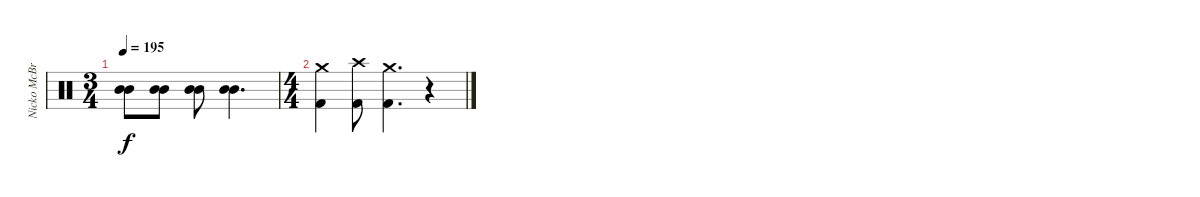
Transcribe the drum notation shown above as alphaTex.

\track ("Nicko McBrain" "Nicko McBr") {instrument percussion}
\staff {score}
\articulation defaults
\ts (3 4)
\tempo 195
\clef neutral
\ks c
("Mid Tom (hit)" "Mid Tom (hit)").8{dy f} ("Mid Tom (hit)" "Mid Tom (hit)").8 ("Mid Tom (hit)" "Mid Tom (hit)").8 ("Mid Tom (hit)" "Mid Tom (hit)").4{d} |
\ts (4 4)
("Crash medium (hit)" "Kick (hit) 2").4 ("Crash high (hit)" "Kick (hit) 2").8 ("Crash medium (hit)" "Kick (hit) 2").4{d} r.4
